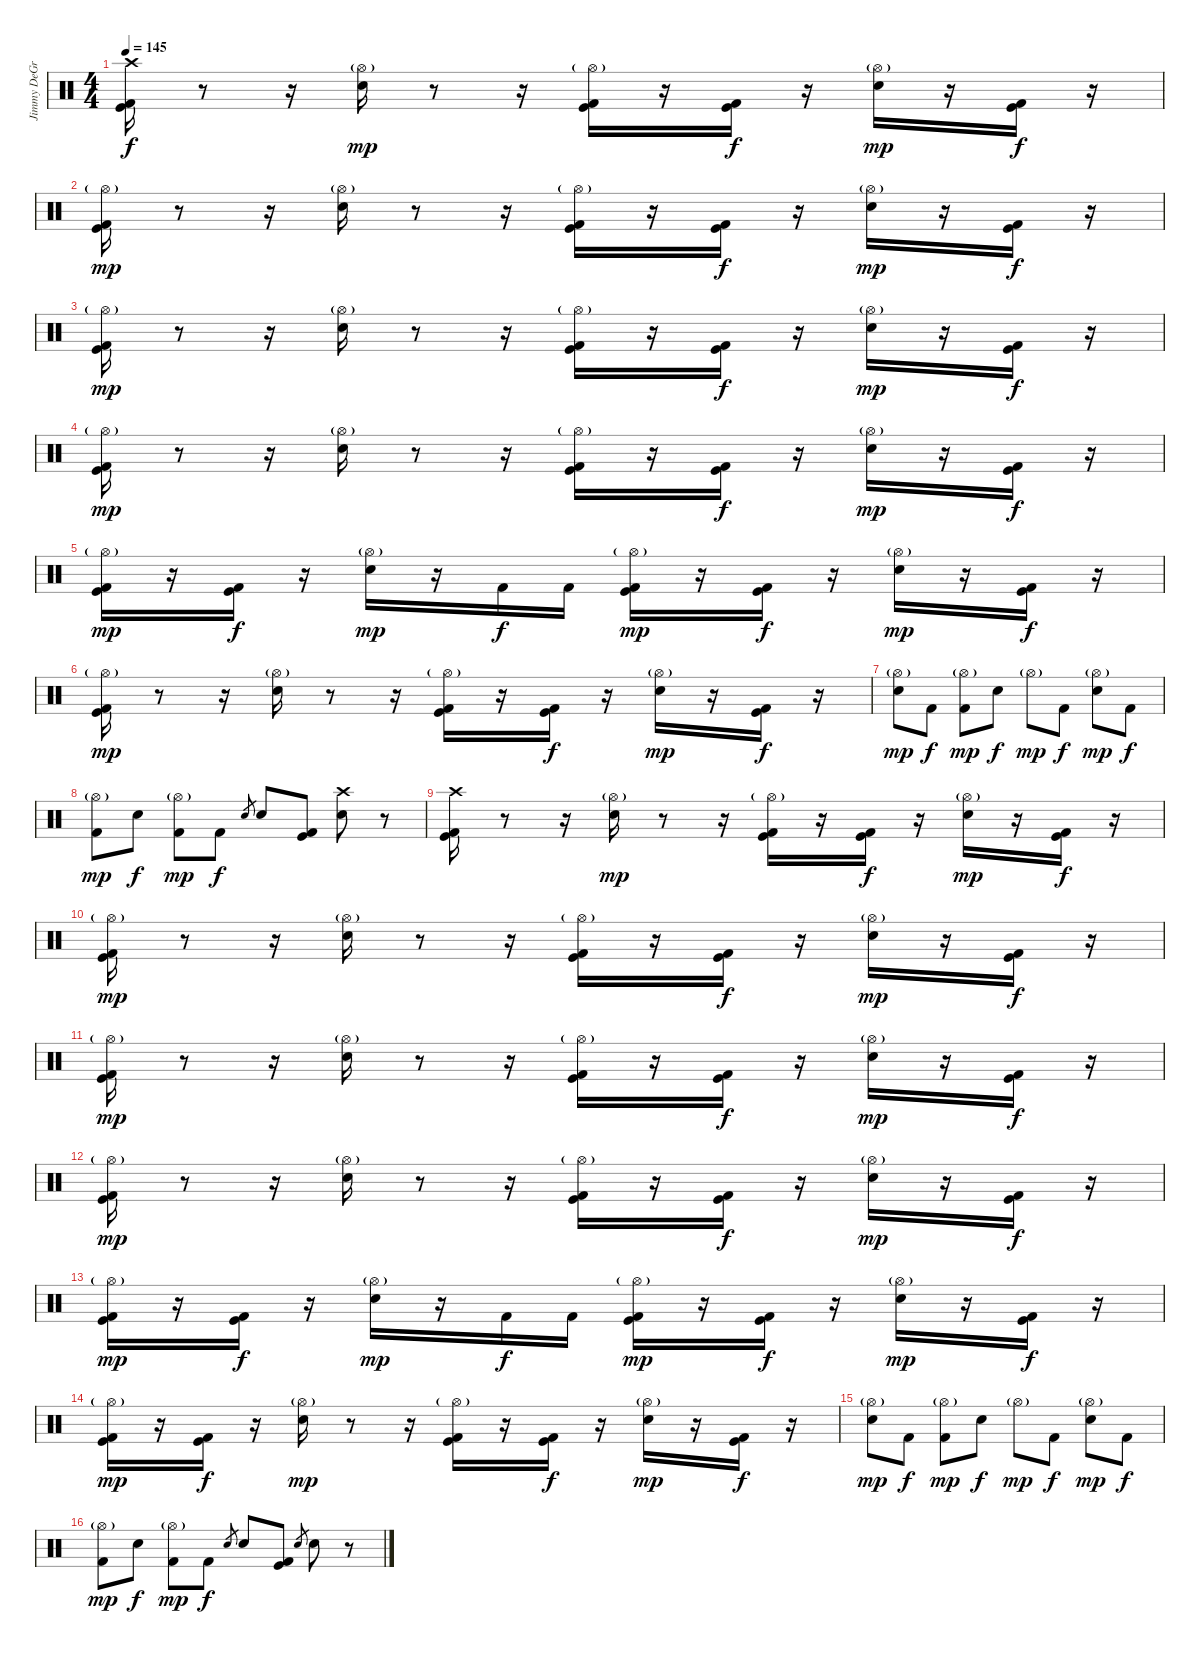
\track ("Jimmy DeGrasso" "Jimmy DeGr") {instrument percussion}
\staff {score}
\articulation defaults
\ts (4 4)
\tempo 145
\clef neutral
\ks c
("Crash high (hit)" "Kick (hit)" "Kick (hit) 2").16{dy f} r.8 r.16 ("Hi-Hat (open)"{g} "Electric Snare (hit)").16{dy mp} r.8 r.16 ("Hi-Hat (open)"{g} "Kick (hit)" "Kick (hit) 2").16 r.16 ("Kick (hit)" "Kick (hit) 2").16{dy f} r.16 ("Hi-Hat (open)"{g} "Electric Snare (hit)").16{dy mp} r.16 ("Kick (hit)" "Kick (hit) 2").16{dy f} r.16 |
("Hi-Hat (open)"{g} "Kick (hit)" "Kick (hit) 2").16{dy mp} r.8 r.16 ("Hi-Hat (open)"{g} "Electric Snare (hit)").16 r.8 r.16 ("Hi-Hat (open)"{g} "Kick (hit)" "Kick (hit) 2").16 r.16 ("Kick (hit)" "Kick (hit) 2").16{dy f} r.16 ("Hi-Hat (open)"{g} "Electric Snare (hit)").16{dy mp} r.16 ("Kick (hit)" "Kick (hit) 2").16{dy f} r.16 |
("Hi-Hat (open)"{g} "Kick (hit)" "Kick (hit) 2").16{dy mp} r.8 r.16 ("Hi-Hat (open)"{g} "Electric Snare (hit)").16 r.8 r.16 ("Hi-Hat (open)"{g} "Kick (hit)" "Kick (hit) 2").16 r.16 ("Kick (hit)" "Kick (hit) 2").16{dy f} r.16 ("Hi-Hat (open)"{g} "Electric Snare (hit)").16{dy mp} r.16 ("Kick (hit)" "Kick (hit) 2").16{dy f} r.16 |
("Hi-Hat (open)"{g} "Kick (hit)" "Kick (hit) 2").16{dy mp} r.8 r.16 ("Hi-Hat (open)"{g} "Electric Snare (hit)").16 r.8 r.16 ("Hi-Hat (open)"{g} "Kick (hit)" "Kick (hit) 2").16 r.16 ("Kick (hit)" "Kick (hit) 2").16{dy f} r.16 ("Hi-Hat (open)"{g} "Electric Snare (hit)").16{dy mp} r.16 ("Kick (hit)" "Kick (hit) 2").16{dy f} r.16 |
("Hi-Hat (open)"{g} "Kick (hit)" "Kick (hit) 2").16{dy mp} r.16 ("Kick (hit)" "Kick (hit) 2").16{dy f} r.16 ("Hi-Hat (open)"{g} "Electric Snare (hit)").16{dy mp} r.16 "Kick (hit) 2".16{dy f} "Kick (hit) 2".16 ("Hi-Hat (open)"{g} "Kick (hit)" "Kick (hit) 2").16{dy mp} r.16 ("Kick (hit)" "Kick (hit) 2").16{dy f} r.16 ("Hi-Hat (open)"{g} "Electric Snare (hit)").16{dy mp} r.16 ("Kick (hit)" "Kick (hit) 2").16{dy f} r.16 |
("Hi-Hat (open)"{g} "Kick (hit)" "Kick (hit) 2").16{dy mp} r.8 r.16 ("Hi-Hat (open)"{g} "Electric Snare (hit)").16 r.8 r.16 ("Hi-Hat (open)"{g} "Kick (hit)" "Kick (hit) 2").16 r.16 ("Kick (hit)" "Kick (hit) 2").16{dy f} r.16 ("Hi-Hat (open)"{g} "Electric Snare (hit)").16{dy mp} r.16 ("Kick (hit)" "Kick (hit) 2").16{dy f} r.16 |
("Hi-Hat (open)"{g} "Electric Snare (hit)").8{dy mp} "Kick (hit) 2".8{dy f} ("Hi-Hat (open)"{g} "Kick (hit) 2").8{dy mp} "Electric Snare (hit)".8{dy f} "Hi-Hat (open)"{g}.8{dy mp} "Kick (hit) 2".8{dy f} ("Hi-Hat (open)"{g} "Electric Snare (hit)").8{dy mp} "Kick (hit) 2".8{dy f} |
("Hi-Hat (open)"{g} "Kick (hit) 2").8{dy mp} "Electric Snare (hit)".8{dy f} ("Hi-Hat (open)"{g} "Kick (hit) 2").8{dy mp} "Kick (hit) 2".8{dy f} "Electric Snare (hit)".8{gr} "Electric Snare (hit)".8 ("Kick (hit)" "Kick (hit) 2").8 ("Crash high (hit)" "Electric Snare (hit)").8 r.8 |
("Crash high (hit)" "Kick (hit)" "Kick (hit) 2").16 r.8 r.16 ("Hi-Hat (open)"{g} "Electric Snare (hit)").16{dy mp} r.8 r.16 ("Hi-Hat (open)"{g} "Kick (hit)" "Kick (hit) 2").16 r.16 ("Kick (hit)" "Kick (hit) 2").16{dy f} r.16 ("Hi-Hat (open)"{g} "Electric Snare (hit)").16{dy mp} r.16 ("Kick (hit)" "Kick (hit) 2").16{dy f} r.16 |
("Hi-Hat (open)"{g} "Kick (hit)" "Kick (hit) 2").16{dy mp} r.8 r.16 ("Hi-Hat (open)"{g} "Electric Snare (hit)").16 r.8 r.16 ("Hi-Hat (open)"{g} "Kick (hit)" "Kick (hit) 2").16 r.16 ("Kick (hit)" "Kick (hit) 2").16{dy f} r.16 ("Hi-Hat (open)"{g} "Electric Snare (hit)").16{dy mp} r.16 ("Kick (hit)" "Kick (hit) 2").16{dy f} r.16 |
("Hi-Hat (open)"{g} "Kick (hit)" "Kick (hit) 2").16{dy mp} r.8 r.16 ("Hi-Hat (open)"{g} "Electric Snare (hit)").16 r.8 r.16 ("Hi-Hat (open)"{g} "Kick (hit)" "Kick (hit) 2").16 r.16 ("Kick (hit)" "Kick (hit) 2").16{dy f} r.16 ("Hi-Hat (open)"{g} "Electric Snare (hit)").16{dy mp} r.16 ("Kick (hit)" "Kick (hit) 2").16{dy f} r.16 |
("Hi-Hat (open)"{g} "Kick (hit)" "Kick (hit) 2").16{dy mp} r.8 r.16 ("Hi-Hat (open)"{g} "Electric Snare (hit)").16 r.8 r.16 ("Hi-Hat (open)"{g} "Kick (hit)" "Kick (hit) 2").16 r.16 ("Kick (hit)" "Kick (hit) 2").16{dy f} r.16 ("Hi-Hat (open)"{g} "Electric Snare (hit)").16{dy mp} r.16 ("Kick (hit)" "Kick (hit) 2").16{dy f} r.16 |
("Hi-Hat (open)"{g} "Kick (hit)" "Kick (hit) 2").16{dy mp} r.16 ("Kick (hit)" "Kick (hit) 2").16{dy f} r.16 ("Hi-Hat (open)"{g} "Electric Snare (hit)").16{dy mp} r.16 "Kick (hit) 2".16{dy f} "Kick (hit) 2".16 ("Hi-Hat (open)"{g} "Kick (hit)" "Kick (hit) 2").16{dy mp} r.16 ("Kick (hit)" "Kick (hit) 2").16{dy f} r.16 ("Hi-Hat (open)"{g} "Electric Snare (hit)").16{dy mp} r.16 ("Kick (hit)" "Kick (hit) 2").16{dy f} r.16 |
("Hi-Hat (open)"{g} "Kick (hit)" "Kick (hit) 2").16{dy mp} r.16 ("Kick (hit)" "Kick (hit) 2").16{dy f} r.16 ("Hi-Hat (open)"{g} "Electric Snare (hit)").16{dy mp} r.8 r.16 ("Hi-Hat (open)"{g} "Kick (hit)" "Kick (hit) 2").16 r.16 ("Kick (hit)" "Kick (hit) 2").16{dy f} r.16 ("Hi-Hat (open)"{g} "Electric Snare (hit)").16{dy mp} r.16 ("Kick (hit)" "Kick (hit) 2").16{dy f} r.16 |
("Hi-Hat (open)"{g} "Electric Snare (hit)").8{dy mp} "Kick (hit) 2".8{dy f} ("Hi-Hat (open)"{g} "Kick (hit) 2").8{dy mp} "Electric Snare (hit)".8{dy f} "Hi-Hat (open)"{g}.8{dy mp} "Kick (hit) 2".8{dy f} ("Hi-Hat (open)"{g} "Electric Snare (hit)").8{dy mp} "Kick (hit) 2".8{dy f} |
("Hi-Hat (open)"{g} "Kick (hit) 2").8{dy mp} "Electric Snare (hit)".8{dy f} ("Hi-Hat (open)"{g} "Kick (hit) 2").8{dy mp} "Kick (hit) 2".8{dy f} "Electric Snare (hit)".8{gr} "Electric Snare (hit)".8 ("Kick (hit)" "Kick (hit) 2").8 "Electric Snare (hit)".8{gr} "Electric Snare (hit)".8 r.8
